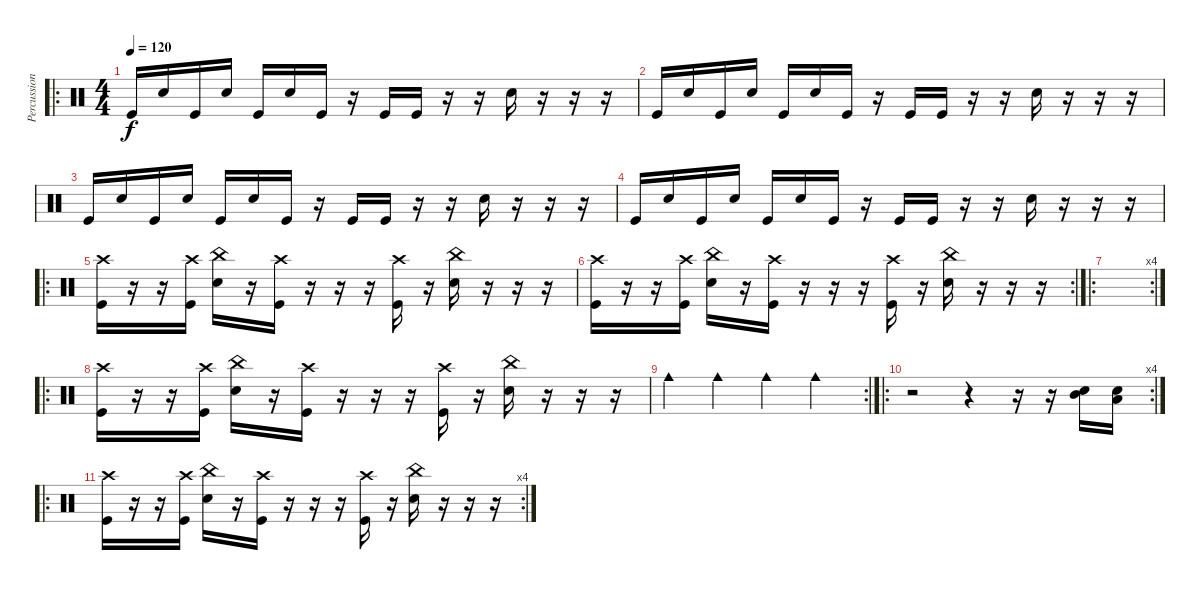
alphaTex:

\track ("Percussions" "Percussion") {instrument percussion}
\staff {score}
\articulation defaults
\ro
\ts (4 4)
\tempo 120
\clef neutral
\ks c "Kick (hit)".16{dy f} "Electric Snare (hit)".16 "Kick (hit)".16 "Electric Snare (hit)".16 "Kick (hit)".16 "Electric Snare (hit)".16 "Kick (hit)".16
r.16 "Kick (hit)".16 "Kick (hit)".16 r.16 r.16 "Electric Snare (hit)".16 r.16 r.16 r.16 |
"Kick (hit)".16 "Electric Snare (hit)".16 "Kick (hit)".16 "Electric Snare (hit)".16 "Kick (hit)".16 "Electric Snare (hit)".16 "Kick (hit)".16 r.16 "Kick (hit)".16 "Kick (hit)".16 r.16 r.16 "Electric Snare (hit)".16 r.16 r.16 r.16 |
"Kick (hit)".16 "Electric Snare (hit)".16 "Kick (hit)".16 "Electric Snare (hit)".16 "Kick (hit)".16 "Electric Snare (hit)".16 "Kick (hit)".16 r.16 "Kick (hit)".16 "Kick (hit)".16 r.16 r.16 "Electric Snare (hit)".16 r.16 r.16 r.16 |
"Kick (hit)".16 "Electric Snare (hit)".16 "Kick (hit)".16 "Electric Snare (hit)".16 "Kick (hit)".16 "Electric Snare (hit)".16 "Kick (hit)".16 r.16 "Kick (hit)".16 "Kick (hit)".16 r.16 r.16 "Electric Snare (hit)".16 r.16 r.16 r.16 |
\ro
("Crash high (hit)" "Kick (hit)").16 r.16 r.16 ("Crash high (hit)" "Kick (hit)").16 ("Electric Snare (hit)" "China (hit)").16 r.16 ("Crash high (hit)" "Kick (hit)").16 r.16 r.16 r.16 ("Crash high (hit)" "Kick (hit)").16 r.16 ("Electric Snare (hit)" "China (hit)").16 r.16 r.16 r.16 |
\rc 2
("Crash high (hit)" "Kick (hit)").16 r.16 r.16 ("Crash high (hit)" "Kick (hit)").16 ("Electric Snare (hit)" "China (hit)").16 r.16 ("Crash high (hit)" "Kick (hit)").16 r.16 r.16 r.16 ("Crash high (hit)" "Kick (hit)").16 r.16 ("Electric Snare (hit)" "China (hit)").16 r.16 r.16 r.16 |
\ro
\rc 4
|
\ro
("Crash high (hit)" "Kick (hit)").16 r.16 r.16 ("Crash high (hit)" "Kick (hit)").16 ("Electric Snare (hit)" "China (hit)").16 r.16 ("Crash high (hit)" "Kick (hit)").16 r.16 r.16 r.16 ("Crash high (hit)" "Kick (hit)").16 r.16 ("Electric Snare (hit)" "China (hit)").16 r.16 r.16 r.16 |
\rc 2 "Cowbell medium (hit)".4 "Cowbell medium (hit)".4 "Cowbell medium (hit)".4 "Cowbell medium (hit)".4
|
\ro
\rc 4
r.2 r.4 r.16 r.16 ("Mid Tom (hit)" "Electric Snare (hit)").16 ("Low Tom (hit)" "Electric Snare (hit)").16 |
\ro
\rc 4
("Crash high (hit)" "Kick (hit)").16 r.16 r.16 ("Crash high (hit)" "Kick (hit)").16 ("Electric Snare (hit)" "China (hit)").16 r.16 ("Crash high (hit)" "Kick (hit)").16 r.16 r.16 r.16 ("Crash high (hit)" "Kick (hit)").16 r.16 ("Electric Snare (hit)" "China (hit)").16 r.16 r.16 r.16
